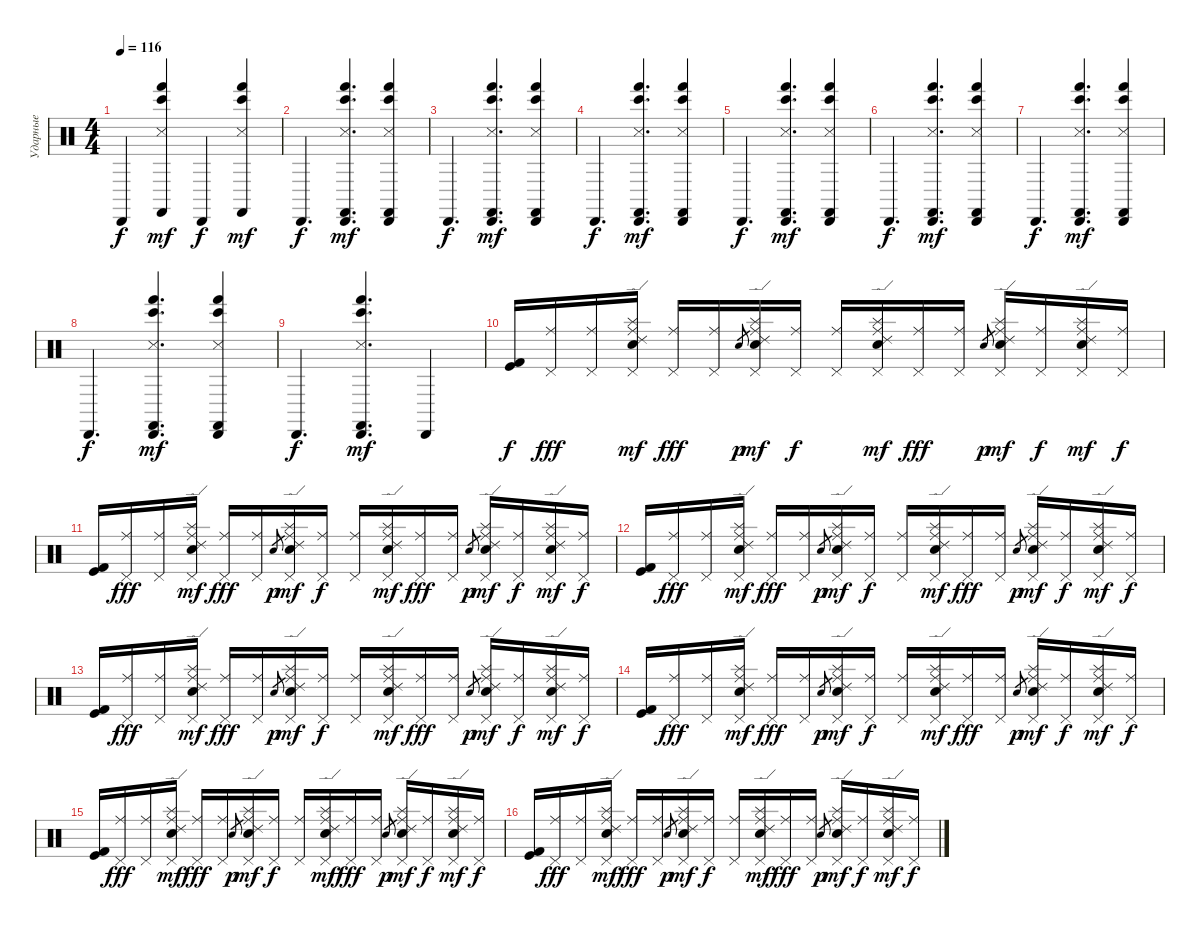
\track ("Ударные" "Ударные") {instrument percussion}
\staff {score}
\articulation defaults
\ts (4 4)
\tempo 116
\clef neutral
\ks c "Cabasa (hit)".4{dy f}
("Castanets (hit)" "Hand (hit)" "Snare (side stick) 3" "Bongo High (hit)").4{dy mf} "Cabasa (hit)".4{dy f} ("Castanets (hit)" "Hand (hit)" "Snare (side stick) 3" "Bongo High (hit)").4{dy mf} |
"Cabasa (hit)".4{d dy f} ("Castanets (hit)" "Hand (hit)" "Snare (side stick) 3" "Bongo High (hit)" "Cabasa (hit)").4{d dy mf} ("Castanets (hit)" "Hand (hit)" "Snare (side stick) 3" "Bongo High (hit)" "Cabasa (hit)").4 |
"Cabasa (hit)".4{d dy f} ("Castanets (hit)" "Hand (hit)" "Snare (side stick) 3" "Bongo High (hit)" "Cabasa (hit)").4{d dy mf} ("Castanets (hit)" "Hand (hit)" "Snare (side stick) 3" "Bongo High (hit)" "Cabasa (hit)").4 |
"Cabasa (hit)".4{d dy f} ("Castanets (hit)" "Hand (hit)" "Snare (side stick) 3" "Bongo High (hit)" "Cabasa (hit)").4{d dy mf} ("Castanets (hit)" "Hand (hit)" "Snare (side stick) 3" "Bongo High (hit)" "Cabasa (hit)").4 |
"Cabasa (hit)".4{d dy f} ("Castanets (hit)" "Hand (hit)" "Snare (side stick) 3" "Bongo High (hit)" "Cabasa (hit)").4{d dy mf} ("Castanets (hit)" "Hand (hit)" "Snare (side stick) 3" "Bongo High (hit)" "Cabasa (hit)").4 |
"Cabasa (hit)".4{d dy f} ("Castanets (hit)" "Hand (hit)" "Snare (side stick) 3" "Bongo High (hit)" "Cabasa (hit)").4{d dy mf} ("Castanets (hit)" "Hand (hit)" "Snare (side stick) 3" "Bongo High (hit)" "Cabasa (hit)").4 |
"Cabasa (hit)".4{d dy f} ("Castanets (hit)" "Hand (hit)" "Snare (side stick) 3" "Bongo High (hit)" "Cabasa (hit)").4{d dy mf} ("Castanets (hit)" "Hand (hit)" "Snare (side stick) 3" "Bongo High (hit)" "Cabasa (hit)").4 |
"Cabasa (hit)".4{d dy f} ("Castanets (hit)" "Hand (hit)" "Snare (side stick) 3" "Bongo High (hit)" "Cabasa (hit)").4{d dy mf} ("Castanets (hit)" "Hand (hit)" "Snare (side stick) 3" "Bongo High (hit)" "Cabasa (hit)").4 |
"Cabasa (hit)".4{d dy f} ("Castanets (hit)" "Hand (hit)" "Snare (side stick) 3" "Bongo High (hit)" "Cabasa (hit)").4{d dy mf} "Cabasa (hit)".4 |
("Kick (hit)" "Kick (hit) 2").16{dy f} ("Ride (middle)" "Pedal Hi-Hat (hit)").16{dy fff} ("Ride (middle)" "Pedal Hi-Hat (hit)").16 ("Ride (edge) 2" "Splash (hit)" "Ride (middle)" "Pedal Hi-Hat (hit)" "Electric Snare (hit)").16{dy mf} ("Ride (middle)" "Pedal Hi-Hat (hit)").16{dy fff} ("Ride (middle)" "Pedal Hi-Hat (hit)").16 "Electric Snare (hit)".8{gr dy p} ("Ride (edge) 2" "Splash (hit)" "Ride (middle)" "Pedal Hi-Hat (hit)" "Electric Snare (hit)").16{dy mf} ("Ride (middle)" "Pedal Hi-Hat (hit)").16{dy f} ("Ride (middle)" "Pedal Hi-Hat (hit)").16 ("Ride (edge) 2" "Splash (hit)" "Ride (middle)" "Pedal Hi-Hat (hit)" "Electric Snare (hit)").16{dy mf} ("Ride (middle)" "Pedal Hi-Hat (hit)").16{dy fff} ("Ride (middle)" "Pedal Hi-Hat (hit)").16 "Electric Snare (hit)".8{gr dy p} ("Ride (edge) 2" "Splash (hit)" "Ride (middle)" "Pedal Hi-Hat (hit)" "Electric Snare (hit)").16{dy mf} ("Ride (middle)" "Pedal Hi-Hat (hit)").16{dy f} ("Ride (edge) 2" "Splash (hit)" "Ride (middle)" "Pedal Hi-Hat (hit)" "Electric Snare (hit)").16{dy mf} ("Ride (middle)" "Pedal Hi-Hat (hit)").16{dy f} |
("Kick (hit)" "Kick (hit) 2").16 ("Ride (middle)" "Pedal Hi-Hat (hit)").16{dy fff} ("Ride (middle)" "Pedal Hi-Hat (hit)").16 ("Ride (edge) 2" "Splash (hit)" "Ride (middle)" "Pedal Hi-Hat (hit)" "Electric Snare (hit)").16{dy mf} ("Ride (middle)" "Pedal Hi-Hat (hit)").16{dy fff} ("Ride (middle)" "Pedal Hi-Hat (hit)").16 "Electric Snare (hit)".8{gr dy p} ("Ride (edge) 2" "Splash (hit)" "Ride (middle)" "Pedal Hi-Hat (hit)" "Electric Snare (hit)").16{dy mf} ("Ride (middle)" "Pedal Hi-Hat (hit)").16{dy f} ("Ride (middle)" "Pedal Hi-Hat (hit)").16 ("Ride (edge) 2" "Splash (hit)" "Ride (middle)" "Pedal Hi-Hat (hit)" "Electric Snare (hit)").16{dy mf} ("Ride (middle)" "Pedal Hi-Hat (hit)").16{dy fff} ("Ride (middle)" "Pedal Hi-Hat (hit)").16 "Electric Snare (hit)".8{gr dy p} ("Ride (edge) 2" "Splash (hit)" "Ride (middle)" "Pedal Hi-Hat (hit)" "Electric Snare (hit)").16{dy mf} ("Ride (middle)" "Pedal Hi-Hat (hit)").16{dy f} ("Ride (edge) 2" "Splash (hit)" "Ride (middle)" "Pedal Hi-Hat (hit)" "Electric Snare (hit)").16{dy mf} ("Ride (middle)" "Pedal Hi-Hat (hit)").16{dy f} |
("Kick (hit)" "Kick (hit) 2").16 ("Ride (middle)" "Pedal Hi-Hat (hit)").16{dy fff} ("Ride (middle)" "Pedal Hi-Hat (hit)").16 ("Ride (edge) 2" "Splash (hit)" "Ride (middle)" "Pedal Hi-Hat (hit)" "Electric Snare (hit)").16{dy mf} ("Ride (middle)" "Pedal Hi-Hat (hit)").16{dy fff} ("Ride (middle)" "Pedal Hi-Hat (hit)").16 "Electric Snare (hit)".8{gr dy p} ("Ride (edge) 2" "Splash (hit)" "Ride (middle)" "Pedal Hi-Hat (hit)" "Electric Snare (hit)").16{dy mf} ("Ride (middle)" "Pedal Hi-Hat (hit)").16{dy f} ("Ride (middle)" "Pedal Hi-Hat (hit)").16 ("Ride (edge) 2" "Splash (hit)" "Ride (middle)" "Pedal Hi-Hat (hit)" "Electric Snare (hit)").16{dy mf} ("Ride (middle)" "Pedal Hi-Hat (hit)").16{dy fff} ("Ride (middle)" "Pedal Hi-Hat (hit)").16 "Electric Snare (hit)".8{gr dy p} ("Ride (edge) 2" "Splash (hit)" "Ride (middle)" "Pedal Hi-Hat (hit)" "Electric Snare (hit)").16{dy mf} ("Ride (middle)" "Pedal Hi-Hat (hit)").16{dy f} ("Ride (edge) 2" "Splash (hit)" "Ride (middle)" "Pedal Hi-Hat (hit)" "Electric Snare (hit)").16{dy mf} ("Ride (middle)" "Pedal Hi-Hat (hit)").16{dy f} |
("Kick (hit)" "Kick (hit) 2").16 ("Ride (middle)" "Pedal Hi-Hat (hit)").16{dy fff} ("Ride (middle)" "Pedal Hi-Hat (hit)").16 ("Ride (edge) 2" "Splash (hit)" "Ride (middle)" "Pedal Hi-Hat (hit)" "Electric Snare (hit)").16{dy mf} ("Ride (middle)" "Pedal Hi-Hat (hit)").16{dy fff} ("Ride (middle)" "Pedal Hi-Hat (hit)").16 "Electric Snare (hit)".8{gr dy p} ("Ride (edge) 2" "Splash (hit)" "Ride (middle)" "Pedal Hi-Hat (hit)" "Electric Snare (hit)").16{dy mf} ("Ride (middle)" "Pedal Hi-Hat (hit)").16{dy f} ("Ride (middle)" "Pedal Hi-Hat (hit)").16 ("Ride (edge) 2" "Splash (hit)" "Ride (middle)" "Pedal Hi-Hat (hit)" "Electric Snare (hit)").16{dy mf} ("Ride (middle)" "Pedal Hi-Hat (hit)").16{dy fff} ("Ride (middle)" "Pedal Hi-Hat (hit)").16 "Electric Snare (hit)".8{gr dy p} ("Ride (edge) 2" "Splash (hit)" "Ride (middle)" "Pedal Hi-Hat (hit)" "Electric Snare (hit)").16{dy mf} ("Ride (middle)" "Pedal Hi-Hat (hit)").16{dy f} ("Ride (edge) 2" "Splash (hit)" "Ride (middle)" "Pedal Hi-Hat (hit)" "Electric Snare (hit)").16{dy mf} ("Ride (middle)" "Pedal Hi-Hat (hit)").16{dy f} |
("Kick (hit)" "Kick (hit) 2").16 ("Ride (middle)" "Pedal Hi-Hat (hit)").16{dy fff} ("Ride (middle)" "Pedal Hi-Hat (hit)").16 ("Ride (edge) 2" "Splash (hit)" "Ride (middle)" "Pedal Hi-Hat (hit)" "Electric Snare (hit)").16{dy mf} ("Ride (middle)" "Pedal Hi-Hat (hit)").16{dy fff} ("Ride (middle)" "Pedal Hi-Hat (hit)").16 "Electric Snare (hit)".8{gr dy p} ("Ride (edge) 2" "Splash (hit)" "Ride (middle)" "Pedal Hi-Hat (hit)" "Electric Snare (hit)").16{dy mf} ("Ride (middle)" "Pedal Hi-Hat (hit)").16{dy f} ("Ride (middle)" "Pedal Hi-Hat (hit)").16 ("Ride (edge) 2" "Splash (hit)" "Ride (middle)" "Pedal Hi-Hat (hit)" "Electric Snare (hit)").16{dy mf} ("Ride (middle)" "Pedal Hi-Hat (hit)").16{dy fff} ("Ride (middle)" "Pedal Hi-Hat (hit)").16 "Electric Snare (hit)".8{gr dy p} ("Ride (edge) 2" "Splash (hit)" "Ride (middle)" "Pedal Hi-Hat (hit)" "Electric Snare (hit)").16{dy mf} ("Ride (middle)" "Pedal Hi-Hat (hit)").16{dy f} ("Ride (edge) 2" "Splash (hit)" "Ride (middle)" "Pedal Hi-Hat (hit)" "Electric Snare (hit)").16{dy mf} ("Ride (middle)" "Pedal Hi-Hat (hit)").16{dy f} |
("Kick (hit)" "Kick (hit) 2").16 ("Ride (middle)" "Pedal Hi-Hat (hit)").16{dy fff} ("Ride (middle)" "Pedal Hi-Hat (hit)").16 ("Ride (edge) 2" "Splash (hit)" "Ride (middle)" "Pedal Hi-Hat (hit)" "Electric Snare (hit)").16{dy mf} ("Ride (middle)" "Pedal Hi-Hat (hit)").16{dy fff} ("Ride (middle)" "Pedal Hi-Hat (hit)").16 "Electric Snare (hit)".8{gr dy p} ("Ride (edge) 2" "Splash (hit)" "Ride (middle)" "Pedal Hi-Hat (hit)" "Electric Snare (hit)").16{dy mf} ("Ride (middle)" "Pedal Hi-Hat (hit)").16{dy f} ("Ride (middle)" "Pedal Hi-Hat (hit)").16 ("Ride (edge) 2" "Splash (hit)" "Ride (middle)" "Pedal Hi-Hat (hit)" "Electric Snare (hit)").16{dy mf} ("Ride (middle)" "Pedal Hi-Hat (hit)").16{dy fff} ("Ride (middle)" "Pedal Hi-Hat (hit)").16 "Electric Snare (hit)".8{gr dy p} ("Ride (edge) 2" "Splash (hit)" "Ride (middle)" "Pedal Hi-Hat (hit)" "Electric Snare (hit)").16{dy mf} ("Ride (middle)" "Pedal Hi-Hat (hit)").16{dy f} ("Ride (edge) 2" "Splash (hit)" "Ride (middle)" "Pedal Hi-Hat (hit)" "Electric Snare (hit)").16{dy mf} ("Ride (middle)" "Pedal Hi-Hat (hit)").16{dy f} |
("Kick (hit)" "Kick (hit) 2").16 ("Ride (middle)" "Pedal Hi-Hat (hit)").16{dy fff} ("Ride (middle)" "Pedal Hi-Hat (hit)").16 ("Ride (edge) 2" "Splash (hit)" "Ride (middle)" "Pedal Hi-Hat (hit)" "Electric Snare (hit)").16{dy mf} ("Ride (middle)" "Pedal Hi-Hat (hit)").16{dy fff} ("Ride (middle)" "Pedal Hi-Hat (hit)").16 "Electric Snare (hit)".8{gr dy p} ("Ride (edge) 2" "Splash (hit)" "Ride (middle)" "Pedal Hi-Hat (hit)" "Electric Snare (hit)").16{dy mf} ("Ride (middle)" "Pedal Hi-Hat (hit)").16{dy f} ("Ride (middle)" "Pedal Hi-Hat (hit)").16 ("Ride (edge) 2" "Splash (hit)" "Ride (middle)" "Pedal Hi-Hat (hit)" "Electric Snare (hit)").16{dy mf} ("Ride (middle)" "Pedal Hi-Hat (hit)").16{dy fff} ("Ride (middle)" "Pedal Hi-Hat (hit)").16 "Electric Snare (hit)".8{gr dy p} ("Ride (edge) 2" "Splash (hit)" "Ride (middle)" "Pedal Hi-Hat (hit)" "Electric Snare (hit)").16{dy mf} ("Ride (middle)" "Pedal Hi-Hat (hit)").16{dy f} ("Ride (edge) 2" "Splash (hit)" "Ride (middle)" "Pedal Hi-Hat (hit)" "Electric Snare (hit)").16{dy mf} ("Ride (middle)" "Pedal Hi-Hat (hit)").16{dy f}
